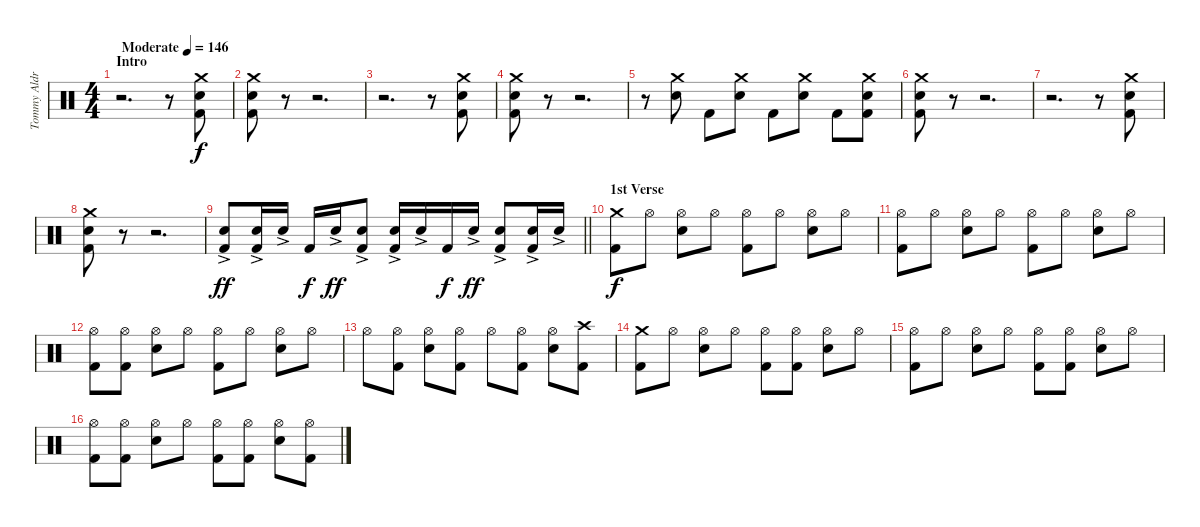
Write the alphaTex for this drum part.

\track ("Tommy Aldridge Drums" "Tommy Aldr") {instrument percussion}
\staff {score}
\articulation defaults
\ts (4 4)
\section ("" "Intro")
\tempo (146 "Moderate")
\clef neutral
\ks c
r.2{d dy f} r.8 ("Crash medium (hit)" "Electric Snare (hit)" "Kick (hit) 2").8 |
("Crash medium (hit)" "Electric Snare (hit)" "Kick (hit) 2").8 r.8 r.2{d} |
r.2{d} r.8 ("Crash medium (hit)" "Electric Snare (hit)" "Kick (hit) 2").8 |
("Crash medium (hit)" "Electric Snare (hit)" "Kick (hit) 2").8 r.8 r.2{d} |
r.8 ("Crash medium (hit)" "Electric Snare (hit)").8 "Kick (hit) 2".8 ("Crash medium (hit)" "Electric Snare (hit)").8 "Kick (hit) 2".8 ("Crash medium (hit)" "Electric Snare (hit)").8 "Kick (hit) 2".8 ("Crash medium (hit)" "Electric Snare (hit)" "Kick (hit) 2").8 |
("Crash medium (hit)" "Electric Snare (hit)" "Kick (hit) 2").8 r.8 r.2{d} |
r.2{d} r.8 ("Crash medium (hit)" "Electric Snare (hit)" "Kick (hit) 2").8 |
("Crash medium (hit)" "Electric Snare (hit)" "Kick (hit) 2").8 r.8 r.2{d} |
\barLineRight lightlight
("Electric Snare (hit)"{ac} "Kick (hit) 2").8{dy ff} ("Electric Snare (hit)"{ac} "Kick (hit) 2").16 "Electric Snare (hit)"{ac}.16 "Kick (hit) 2".16{dy f} "Electric Snare (hit)"{ac}.16{dy ff} ("Electric Snare (hit)"{ac} "Kick (hit) 2").8 ("Electric Snare (hit)"{ac} "Kick (hit) 2").16 "Electric Snare (hit)"{ac}.16 "Kick (hit) 2".16{dy f} "Electric Snare (hit)"{ac}.16{dy ff} ("Electric Snare (hit)"{ac} "Kick (hit) 2").8 ("Electric Snare (hit)"{ac} "Kick (hit) 2").16 "Electric Snare (hit)"{ac}.16 |
\section ("" "1st Verse")
("Crash medium (hit)" "Kick (hit) 2").8{dy f} "Hi-Hat (open)".8 ("Hi-Hat (open)" "Electric Snare (hit)").8 "Hi-Hat (open)".8 ("Hi-Hat (open)" "Kick (hit) 2").8 "Hi-Hat (open)".8 ("Hi-Hat (open)" "Electric Snare (hit)").8 "Hi-Hat (open)".8 |
("Hi-Hat (open)" "Kick (hit) 2").8 "Hi-Hat (open)".8 ("Hi-Hat (open)" "Electric Snare (hit)").8 "Hi-Hat (open)".8 ("Hi-Hat (open)" "Kick (hit) 2").8 "Hi-Hat (open)".8 ("Hi-Hat (open)" "Electric Snare (hit)").8 "Hi-Hat (open)".8 |
("Hi-Hat (open)" "Kick (hit) 2").8 ("Hi-Hat (open)" "Kick (hit) 2").8 ("Hi-Hat (open)" "Electric Snare (hit)").8 "Hi-Hat (open)".8 ("Hi-Hat (open)" "Kick (hit) 2").8 "Hi-Hat (open)".8 ("Hi-Hat (open)" "Electric Snare (hit)").8 "Hi-Hat (open)".8 |
"Hi-Hat (open)".8 ("Hi-Hat (open)" "Kick (hit) 2").8 ("Hi-Hat (open)" "Electric Snare (hit)").8 ("Hi-Hat (open)" "Kick (hit) 2").8 "Hi-Hat (open)".8 ("Hi-Hat (open)" "Kick (hit) 2").8 ("Hi-Hat (open)" "Electric Snare (hit)").8 ("Crash high (hit)" "Kick (hit) 2").8 |
("Crash medium (hit)" "Kick (hit) 2").8 "Hi-Hat (open)".8 ("Hi-Hat (open)" "Electric Snare (hit)").8 "Hi-Hat (open)".8 ("Hi-Hat (open)" "Kick (hit) 2").8 ("Hi-Hat (open)" "Kick (hit) 2").8 ("Hi-Hat (open)" "Electric Snare (hit)").8 "Hi-Hat (open)".8 |
("Hi-Hat (open)" "Kick (hit) 2").8 "Hi-Hat (open)".8 ("Hi-Hat (open)" "Electric Snare (hit)").8 "Hi-Hat (open)".8 ("Hi-Hat (open)" "Kick (hit) 2").8 ("Hi-Hat (open)" "Kick (hit) 2").8 ("Hi-Hat (open)" "Electric Snare (hit)").8 "Hi-Hat (open)".8 |
("Hi-Hat (open)" "Kick (hit) 2").8 ("Hi-Hat (open)" "Kick (hit) 2").8 ("Hi-Hat (open)" "Electric Snare (hit)").8 "Hi-Hat (open)".8 ("Hi-Hat (open)" "Kick (hit) 2").8 ("Hi-Hat (open)" "Kick (hit) 2").8 ("Hi-Hat (open)" "Electric Snare (hit)").8 ("Hi-Hat (open)" "Kick (hit) 2").8
